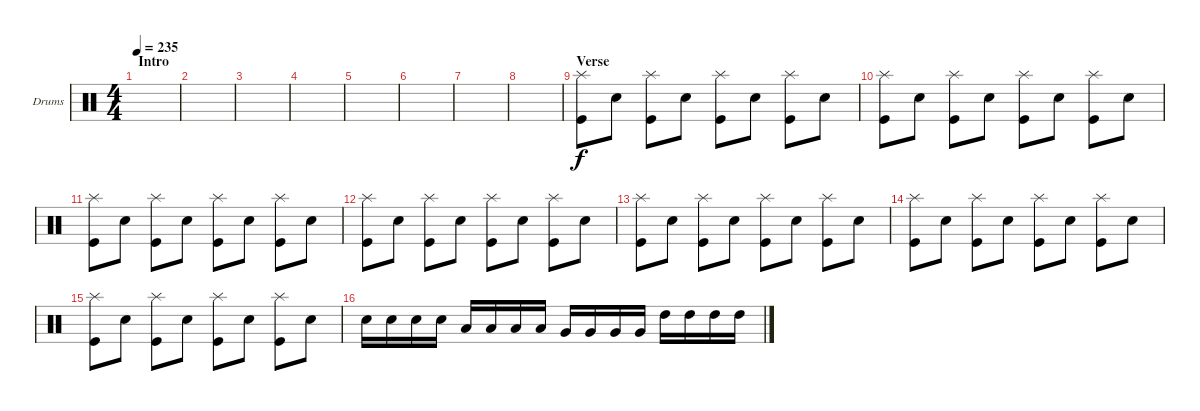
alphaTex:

\defaultSystemsLayout 4
\bracketExtendMode groupsimilarinstruments
\firstSystemTrackNameOrientation horizontal
\otherSystemsTrackNameOrientation horizontal
\track ("Drumkit" "Drums") {instrument percussion}
\staff {score}
\articulation defaults
\ts (4 4)
\section ("" "Intro")
\tempo 235
\clef neutral
\ks c
|
|
|
|
|
|
|
|
\section ("" "Verse")
("Splash (hit)" "Kick (hit)").8 "Snare (hit) 2".8 ("Splash (hit)" "Kick (hit)").8 "Snare (hit) 2".8 ("Splash (hit)" "Kick (hit)").8 "Snare (hit) 2".8 ("Splash (hit)" "Kick (hit)").8 "Snare (hit) 2".8 |
("Splash (hit)" "Kick (hit)").8 "Snare (hit) 2".8 ("Splash (hit)" "Kick (hit)").8 "Snare (hit) 2".8 ("Splash (hit)" "Kick (hit)").8 "Snare (hit) 2".8 ("Splash (hit)" "Kick (hit)").8 "Snare (hit) 2".8 |
("Splash (hit)" "Kick (hit)").8 "Snare (hit) 2".8 ("Splash (hit)" "Kick (hit)").8 "Snare (hit) 2".8 ("Splash (hit)" "Kick (hit)").8 "Snare (hit) 2".8 ("Splash (hit)" "Kick (hit)").8 "Snare (hit) 2".8 |
("Splash (hit)" "Kick (hit)").8 "Snare (hit) 2".8 ("Splash (hit)" "Kick (hit)").8 "Snare (hit) 2".8 ("Splash (hit)" "Kick (hit)").8 "Snare (hit) 2".8 ("Splash (hit)" "Kick (hit)").8 "Snare (hit) 2".8 |
("Splash (hit)" "Kick (hit)").8 "Snare (hit) 2".8 ("Splash (hit)" "Kick (hit)").8 "Snare (hit) 2".8 ("Splash (hit)" "Kick (hit)").8 "Snare (hit) 2".8 ("Splash (hit)" "Kick (hit)").8 "Snare (hit) 2".8 |
("Splash (hit)" "Kick (hit)").8 "Snare (hit) 2".8 ("Splash (hit)" "Kick (hit)").8 "Snare (hit) 2".8 ("Splash (hit)" "Kick (hit)").8 "Snare (hit) 2".8 ("Splash (hit)" "Kick (hit)").8 "Snare (hit) 2".8 |
("Splash (hit)" "Kick (hit)").8 "Snare (hit) 2".8 ("Splash (hit)" "Kick (hit)").8 "Snare (hit) 2".8 ("Splash (hit)" "Kick (hit)").8 "Snare (hit) 2".8 ("Splash (hit)" "Kick (hit)").8 "Snare (hit) 2".8 |
"Snare (hit) 2".16 "Snare (hit) 2".16 "Snare (hit) 2".16 "Snare (hit) 2".16 "Low Tom (hit)".16 "Low Tom (hit)".16 "Low Tom (hit)".16 "Low Tom (hit)".16 "Very Low Tom (hit)".16 "Very Low Tom (hit)".16 "Very Low Tom (hit)".16 "Very Low Tom (hit)".16 "High Tom (hit)".16 "High Tom (hit)".16 "High Tom (hit)".16 "High Tom (hit)".16
